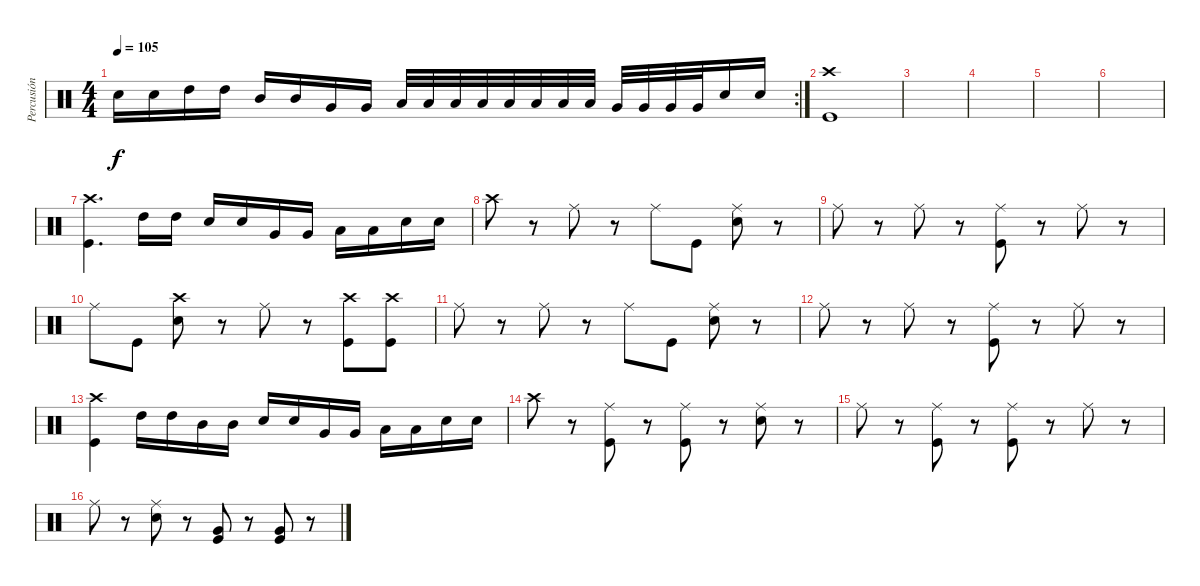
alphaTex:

\track ("Percusión" "Percusión") {instrument percussion}
\staff {score}
\articulation defaults
\rc 2
\ts (4 4)
\tempo 105
\clef neutral
\ks c "Snare (hit) 2".16{dy f} "Snare (hit) 2".16 "High Tom (hit)".16 "High Tom (hit)".16 "Mid Tom (hit)".16 "Mid Tom (hit)".16 "Very Low Tom (hit)".16 "Very Low Tom (hit)".16 "Low Floor Tom (hit)".32 "Low Floor Tom (hit)".32 "Low Floor Tom (hit)".32 "Low Floor Tom (hit)".32 "Low Floor Tom (hit)".32 "Low Floor Tom (hit)".32 "Low Floor Tom (hit)".32 "Low Floor Tom (hit)".32 "Very Low Tom (hit)".32 "Very Low Tom (hit)".32 "Very Low Tom (hit)".32 "Very Low Tom (hit)".32 "Snare (hit) 2".16 "Snare (hit) 2".16
|
("Crash high (hit)" "Kick (hit)").1 |
|
|
|
|
("Crash high (hit)" "Kick (hit)").4{d} "High Tom (hit)".16 "High Tom (hit)".16 "Snare (hit) 2".16 "Snare (hit) 2".16 "Very Low Tom (hit)".16 "Very Low Tom (hit)".16 "Low Floor Tom (hit)".16 "Low Floor Tom (hit)".16 "Snare (hit) 2".16 "Snare (hit) 2".16 |
"Crash high (hit)".8 r.8 "Ride (middle)".8 r.8 "Ride (middle)".8 "Kick (hit)".8 ("Ride (middle)" "Snare (hit) 2").8 r.8 |
"Ride (middle)".8 r.8 "Ride (middle)".8 r.8 ("Ride (middle)" "Kick (hit)").8 r.8 "Ride (middle)".8 r.8 |
"Ride (middle)".8 "Kick (hit)".8 ("Crash high (hit)" "Snare (hit) 2").8 r.8 "Ride (middle)".8 r.8 ("Crash high (hit)" "Kick (hit)").8 ("Crash high (hit)" "Kick (hit)").8 |
"Ride (middle)".8 r.8 "Ride (middle)".8 r.8 "Ride (middle)".8 "Kick (hit)".8 ("Ride (middle)" "Snare (hit) 2").8 r.8 |
"Ride (middle)".8 r.8 "Ride (middle)".8 r.8 ("Ride (middle)" "Kick (hit)").8 r.8 "Ride (middle)".8 r.8 |
("Crash high (hit)" "Kick (hit)").4 "High Tom (hit)".16 "High Tom (hit)".16 "Mid Tom (hit)".16 "Mid Tom (hit)".16 "Snare (hit) 2".16 "Snare (hit) 2".16 "Very Low Tom (hit)".16 "Very Low Tom (hit)".16 "Low Floor Tom (hit)".16 "Low Floor Tom (hit)".16 "Snare (hit) 2".16 "Snare (hit) 2".16 |
"Crash high (hit)".8 r.8 ("Ride (middle)" "Kick (hit)").8 r.8 ("Ride (middle)" "Kick (hit)").8 r.8 ("Ride (middle)" "Snare (hit) 2").8 r.8 |
"Ride (middle)".8 r.8 ("Ride (middle)" "Kick (hit)").8 r.8 ("Ride (middle)" "Kick (hit)").8 r.8 "Ride (middle)".8 r.8 |
"Ride (middle)".8 r.8 ("Ride (middle)" "Snare (hit) 2").8 r.8 ("Very Low Tom (hit)" "Kick (hit)").8 r.8 ("Very Low Tom (hit)" "Kick (hit)").8 r.8
